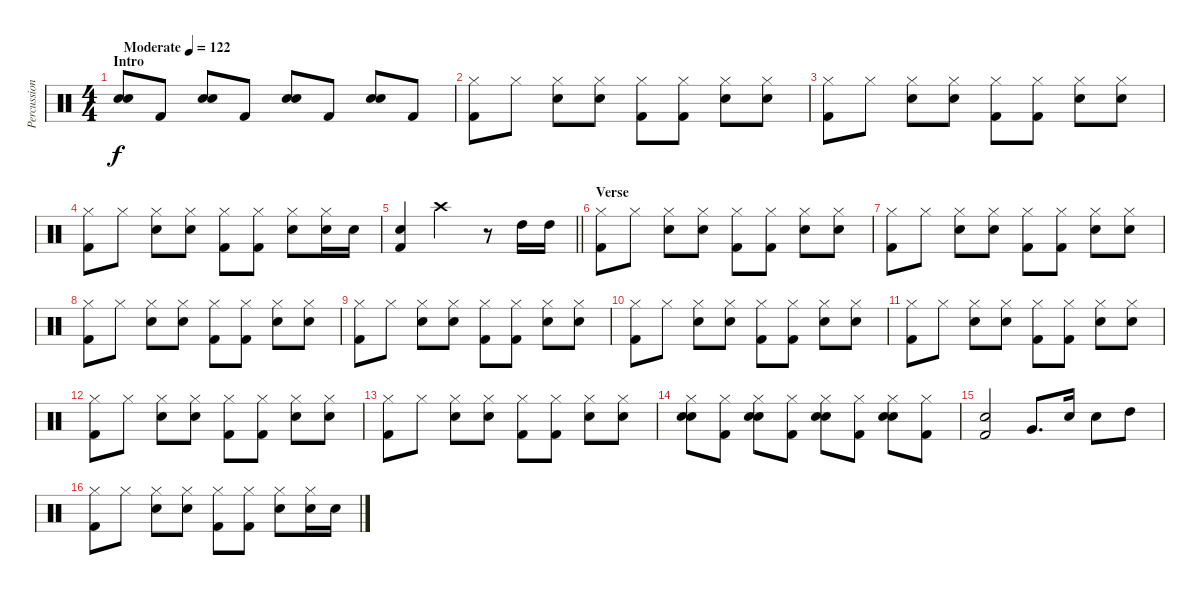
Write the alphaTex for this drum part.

\track ("Percussion" "Percussion") {instrument percussion}
\staff {score}
\articulation defaults
\ts (4 4)
\section ("" "Intro")
\tempo (122 "Moderate")
\clef neutral
\ks c
("Snare (hit) 2" "Snare (hit) 2").8{dy f} "Kick (hit) 2".8 ("Snare (hit) 2" "Snare (hit) 2").8 "Kick (hit) 2".8 ("Snare (hit) 2" "Snare (hit) 2").8 "Kick (hit) 2".8 ("Snare (hit) 2" "Snare (hit) 2").8 "Kick (hit) 2".8 |
("Hi-Hat (closed)" "Kick (hit) 2").8 "Hi-Hat (closed)".8 ("Hi-Hat (closed)" "Snare (hit) 2").8 ("Hi-Hat (closed)" "Snare (hit) 2").8 ("Hi-Hat (closed)" "Kick (hit) 2").8 ("Hi-Hat (closed)" "Kick (hit) 2").8 ("Hi-Hat (closed)" "Snare (hit) 2").8 ("Hi-Hat (closed)" "Snare (hit) 2").8 |
("Hi-Hat (closed)" "Kick (hit) 2").8 "Hi-Hat (closed)".8 ("Hi-Hat (closed)" "Snare (hit) 2").8 ("Hi-Hat (closed)" "Snare (hit) 2").8 ("Hi-Hat (closed)" "Kick (hit) 2").8 ("Hi-Hat (closed)" "Kick (hit) 2").8 ("Hi-Hat (closed)" "Snare (hit) 2").8 ("Hi-Hat (closed)" "Snare (hit) 2").8 |
("Hi-Hat (closed)" "Kick (hit) 2").8 "Hi-Hat (closed)".8 ("Hi-Hat (closed)" "Snare (hit) 2").8 ("Hi-Hat (closed)" "Snare (hit) 2").8 ("Hi-Hat (closed)" "Kick (hit) 2").8 ("Hi-Hat (closed)" "Kick (hit) 2").8 ("Hi-Hat (closed)" "Snare (hit) 2").8 ("Hi-Hat (closed)" "Snare (hit) 2").16 "Snare (hit) 2".16 |
\barLineRight lightlight
("Snare (hit) 2" "Kick (hit) 2").4 "Crash high (hit)".2 r.8 "High Tom (hit)".16 "High Tom (hit)".16 |
\section ("" "Verse")
("Hi-Hat (closed)" "Kick (hit) 2").8 "Hi-Hat (closed)".8 ("Hi-Hat (closed)" "Snare (hit) 2").8 ("Hi-Hat (closed)" "Snare (hit) 2").8 ("Hi-Hat (closed)" "Kick (hit) 2").8 ("Hi-Hat (closed)" "Kick (hit) 2").8 ("Hi-Hat (closed)" "Snare (hit) 2").8 ("Hi-Hat (closed)" "Snare (hit) 2").8 |
("Hi-Hat (closed)" "Kick (hit) 2").8 "Hi-Hat (closed)".8 ("Hi-Hat (closed)" "Snare (hit) 2").8 ("Hi-Hat (closed)" "Snare (hit) 2").8 ("Hi-Hat (closed)" "Kick (hit) 2").8 ("Hi-Hat (closed)" "Kick (hit) 2").8 ("Hi-Hat (closed)" "Snare (hit) 2").8 ("Hi-Hat (closed)" "Snare (hit) 2").8 |
("Hi-Hat (closed)" "Kick (hit) 2").8 "Hi-Hat (closed)".8 ("Hi-Hat (closed)" "Snare (hit) 2").8 ("Hi-Hat (closed)" "Snare (hit) 2").8 ("Hi-Hat (closed)" "Kick (hit) 2").8 ("Hi-Hat (closed)" "Kick (hit) 2").8 ("Hi-Hat (closed)" "Snare (hit) 2").8 ("Hi-Hat (closed)" "Snare (hit) 2").8 |
("Hi-Hat (closed)" "Kick (hit) 2").8 "Hi-Hat (closed)".8 ("Hi-Hat (closed)" "Snare (hit) 2").8 ("Hi-Hat (closed)" "Snare (hit) 2").8 ("Hi-Hat (closed)" "Kick (hit) 2").8 ("Hi-Hat (closed)" "Kick (hit) 2").8 ("Hi-Hat (closed)" "Snare (hit) 2").8 ("Hi-Hat (closed)" "Snare (hit) 2").8 |
("Hi-Hat (closed)" "Kick (hit) 2").8 "Hi-Hat (closed)".8 ("Hi-Hat (closed)" "Snare (hit) 2").8 ("Hi-Hat (closed)" "Snare (hit) 2").8 ("Hi-Hat (closed)" "Kick (hit) 2").8 ("Hi-Hat (closed)" "Kick (hit) 2").8 ("Hi-Hat (closed)" "Snare (hit) 2").8 ("Hi-Hat (closed)" "Snare (hit) 2").8 |
("Hi-Hat (closed)" "Kick (hit) 2").8 "Hi-Hat (closed)".8 ("Hi-Hat (closed)" "Snare (hit) 2").8 ("Hi-Hat (closed)" "Snare (hit) 2").8 ("Hi-Hat (closed)" "Kick (hit) 2").8 ("Hi-Hat (closed)" "Kick (hit) 2").8 ("Hi-Hat (closed)" "Snare (hit) 2").8 ("Hi-Hat (closed)" "Snare (hit) 2").8 |
("Hi-Hat (closed)" "Kick (hit) 2").8 "Hi-Hat (closed)".8 ("Hi-Hat (closed)" "Snare (hit) 2").8 ("Hi-Hat (closed)" "Snare (hit) 2").8 ("Hi-Hat (closed)" "Kick (hit) 2").8 ("Hi-Hat (closed)" "Kick (hit) 2").8 ("Hi-Hat (closed)" "Snare (hit) 2").8 ("Hi-Hat (closed)" "Snare (hit) 2").8 |
("Hi-Hat (closed)" "Kick (hit) 2").8 "Hi-Hat (closed)".8 ("Hi-Hat (closed)" "Snare (hit) 2").8 ("Hi-Hat (closed)" "Snare (hit) 2").8 ("Hi-Hat (closed)" "Kick (hit) 2").8 ("Hi-Hat (closed)" "Kick (hit) 2").8 ("Hi-Hat (closed)" "Snare (hit) 2").8 ("Hi-Hat (closed)" "Snare (hit) 2").8 |
("Hi-Hat (closed)" "Snare (hit) 2" "Snare (hit) 2").8 ("Hi-Hat (closed)" "Kick (hit) 2").8 ("Hi-Hat (closed)" "Snare (hit) 2" "Snare (hit) 2").8 ("Hi-Hat (closed)" "Kick (hit) 2").8 ("Hi-Hat (closed)" "Snare (hit) 2" "Snare (hit) 2").8 ("Hi-Hat (closed)" "Kick (hit) 2").8 ("Hi-Hat (closed)" "Snare (hit) 2" "Snare (hit) 2").8 ("Hi-Hat (closed)" "Kick (hit) 2").8 |
("Snare (hit) 2" "Kick (hit) 2").2 "Very Low Tom (hit)".8{d} "Snare (hit) 2".16 "Snare (hit) 2".8 "High Tom (hit)".8 |
("Hi-Hat (closed)" "Kick (hit) 2").8 "Hi-Hat (closed)".8 ("Hi-Hat (closed)" "Snare (hit) 2").8 ("Hi-Hat (closed)" "Snare (hit) 2").8 ("Hi-Hat (closed)" "Kick (hit) 2").8 ("Hi-Hat (closed)" "Kick (hit) 2").8 ("Hi-Hat (closed)" "Snare (hit) 2").8 ("Hi-Hat (closed)" "Snare (hit) 2").16 "Snare (hit) 2".16
